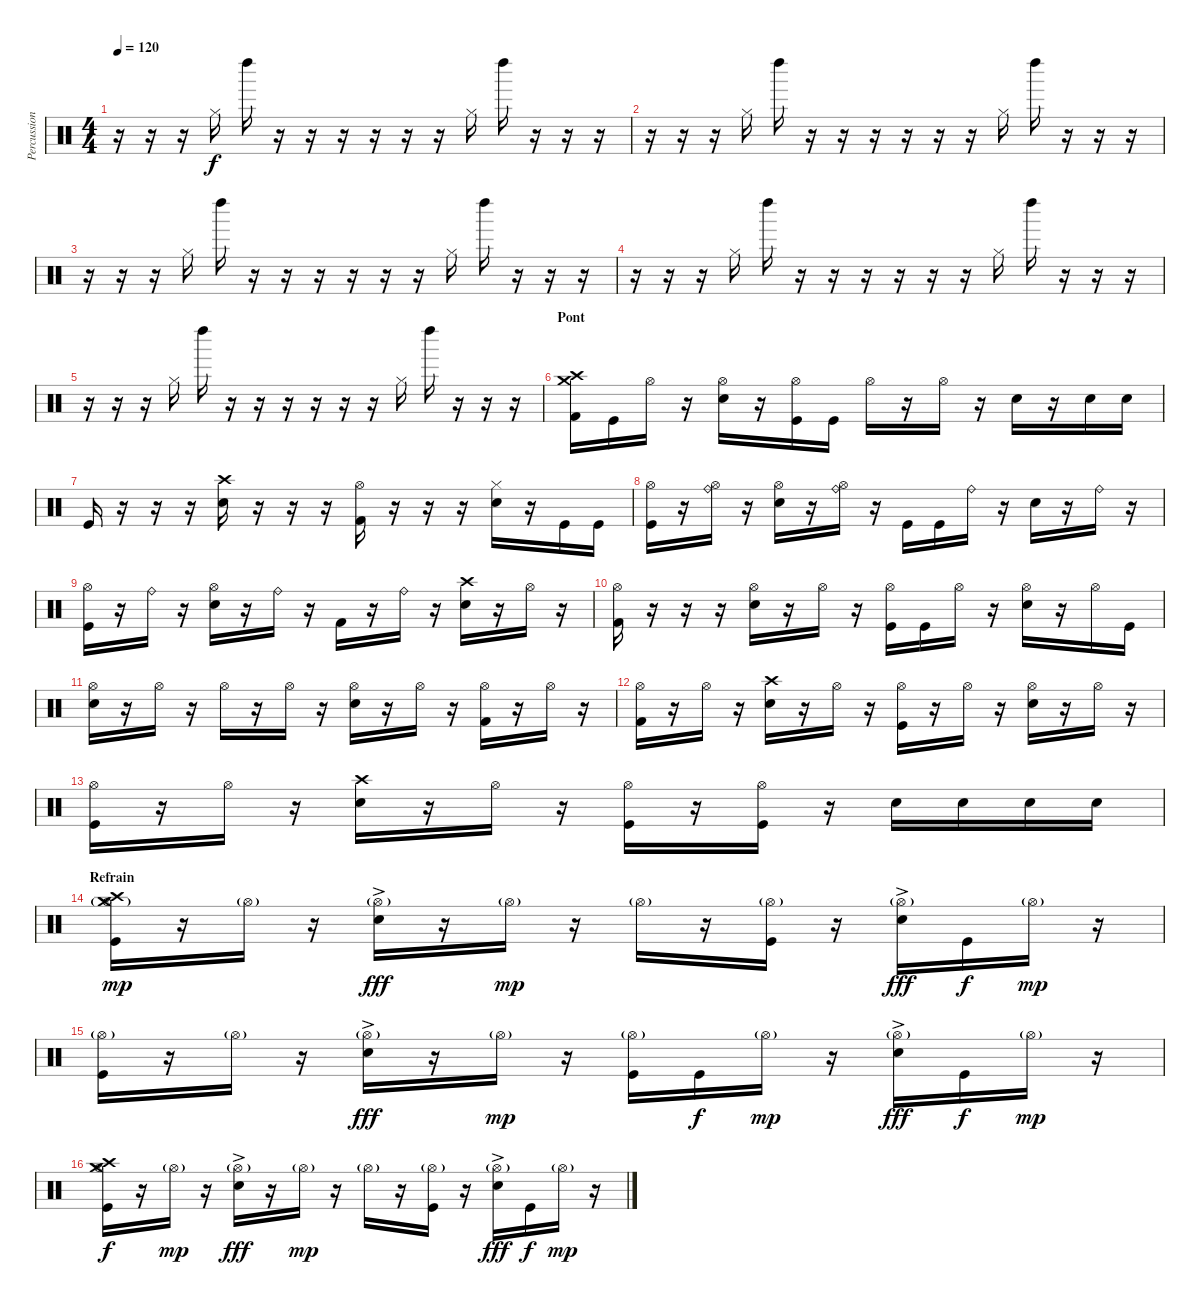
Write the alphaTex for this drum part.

\track ("Percussions" "Percussion") {instrument percussion}
\staff {score}
\articulation defaults
\ts (4 4)
\tempo 120
\clef neutral
\ks c
r.16{dy f} r.16 r.16 "Hi-Hat (closed)".16 "Left Maraca (hit)".16 r.16 r.16 r.16 r.16 r.16 r.16 "Hi-Hat (closed)".16 "Left Maraca (hit)".16 r.16 r.16 r.16 |
r.16 r.16 r.16 "Hi-Hat (closed)".16 "Left Maraca (hit)".16 r.16 r.16 r.16 r.16 r.16 r.16 "Hi-Hat (closed)".16 "Left Maraca (hit)".16 r.16 r.16 r.16 |
r.16 r.16 r.16 "Hi-Hat (closed)".16 "Left Maraca (hit)".16 r.16 r.16 r.16 r.16 r.16 r.16 "Hi-Hat (closed)".16 "Left Maraca (hit)".16 r.16 r.16 r.16 |
r.16 r.16 r.16 "Hi-Hat (closed)".16 "Left Maraca (hit)".16 r.16 r.16 r.16 r.16 r.16 r.16 "Hi-Hat (closed)".16 "Left Maraca (hit)".16 r.16 r.16 r.16 |
r.16 r.16 r.16 "Hi-Hat (closed)".16 "Left Maraca (hit)".16 r.16 r.16 r.16 r.16 r.16 r.16 "Hi-Hat (closed)".16 "Left Maraca (hit)".16 r.16 r.16 r.16 |
\section ("" "Pont")
("Kick (hit) 2" "Crash high (hit)" "Crash medium (hit)").16 "Kick (hit)".16 "Hi-Hat (open)".16 r.16 ("Hi-Hat (open)" "Electric Snare (hit)").16 r.16 ("Hi-Hat (open)" "Kick (hit)").16 "Kick (hit)".16 "Hi-Hat (open)".16 r.16 "Hi-Hat (open)".16 r.16 "Electric Snare (hit)".16 r.16 "Electric Snare (hit)".16 "Electric Snare (hit)".16 |
"Kick (hit)".16 r.16 r.16 r.16 ("Crash high (hit)" "Electric Snare (hit)").16 r.16 r.16 r.16 ("Kick (hit) 2" "Hi-Hat (open)").16 r.16 r.16 r.16 ("Electric Snare (hit)" "Hi-Hat (closed)").16 r.16 "Kick (hit)".16 "Kick (hit)".16 |
("Kick (hit)" "Hi-Hat (open)").16 r.16 ("Ride (bell)" "Hi-Hat (open)").16 r.16 ("Electric Snare (hit)" "Hi-Hat (open)").16 r.16 ("Ride (bell)" "Hi-Hat (open)").16 r.16 "Kick (hit)".16 "Kick (hit)".16 "Ride (bell)".16 r.16 "Electric Snare (hit)".16 r.16 "Ride (bell)".16 r.16 |
("Kick (hit)" "Hi-Hat (open)").16 r.16 "Ride (bell)".16 r.16 ("Electric Snare (hit)" "Hi-Hat (open)").16 r.16 "Ride (bell)".16 r.16 "Kick (hit) 2".16 r.16 "Ride (bell)".16 r.16 ("Crash high (hit)" "Electric Snare (hit)").16 r.16 "Hi-Hat (open)".16 r.16 |
("Hi-Hat (open)" "Kick (hit) 2").16 r.16 r.16 r.16 ("Hi-Hat (open)" "Electric Snare (hit)").16 r.16 "Hi-Hat (open)".16 r.16 ("Hi-Hat (open)" "Kick (hit)").16 "Kick (hit)".16 "Hi-Hat (open)".16 r.16 ("Hi-Hat (open)" "Electric Snare (hit)").16 r.16 "Hi-Hat (open)".16 "Kick (hit)".16 |
("Hi-Hat (open)" "Electric Snare (hit)").16 r.16 "Hi-Hat (open)".16 r.16 "Hi-Hat (open)".16 r.16 "Hi-Hat (open)".16 r.16 ("Hi-Hat (open)" "Electric Snare (hit)").16 r.16 "Hi-Hat (open)".16 r.16 ("Hi-Hat (open)" "Kick (hit) 2").16 r.16 "Hi-Hat (open)".16 r.16 |
("Hi-Hat (open)" "Kick (hit) 2").16 r.16 "Hi-Hat (open)".16 r.16 ("Crash high (hit)" "Electric Snare (hit)").16 r.16 "Hi-Hat (open)".16 r.16 ("Hi-Hat (open)" "Kick (hit)").16 r.16 "Hi-Hat (open)".16 r.16 ("Hi-Hat (open)" "Electric Snare (hit)").16 r.16 "Hi-Hat (open)".16 r.16 |
("Hi-Hat (open)" "Kick (hit)").16 r.16 "Hi-Hat (open)".16 r.16 ("Crash high (hit)" "Electric Snare (hit)").16 r.16 "Hi-Hat (open)".16 r.16 ("Hi-Hat (open)" "Kick (hit)").16 r.16 ("Hi-Hat (open)" "Kick (hit)").16 r.16 "Electric Snare (hit)".16 "Electric Snare (hit)".16 "Electric Snare (hit)".16 "Electric Snare (hit)".16 |
\section ("" "Refrain")
("Crash high (hit)" "Hi-Hat (open)"{g} "Crash medium (hit)" "Kick (hit)").16{dy mp} r.16 "Hi-Hat (open)"{g}.16 r.16 ("Hi-Hat (open)"{g} "Electric Snare (hit)"{ac}).16{dy fff} r.16 "Hi-Hat (open)"{g}.16{dy mp} r.16 "Hi-Hat (open)"{g}.16 r.16 ("Hi-Hat (open)"{g} "Kick (hit)").16 r.16 ("Hi-Hat (open)"{g} "Electric Snare (hit)"{ac}).16{dy fff} "Kick (hit)".16{dy f} "Hi-Hat (open)"{g}.16{dy mp} r.16 |
("Hi-Hat (open)"{g} "Kick (hit)").16 r.16 "Hi-Hat (open)"{g}.16 r.16 ("Hi-Hat (open)"{g} "Electric Snare (hit)"{ac}).16{dy fff} r.16 "Hi-Hat (open)"{g}.16{dy mp} r.16 ("Hi-Hat (open)"{g} "Kick (hit)").16 "Kick (hit)".16{dy f} "Hi-Hat (open)"{g}.16{dy mp} r.16 ("Hi-Hat (open)"{g} "Electric Snare (hit)"{ac}).16{dy fff} "Kick (hit)".16{dy f} "Hi-Hat (open)"{g}.16{dy mp} r.16 |
("Crash high (hit)" "Hi-Hat (open)" "Crash medium (hit)" "Kick (hit)").16{dy f} r.16 "Hi-Hat (open)"{g}.16{dy mp} r.16 ("Hi-Hat (open)"{g} "Electric Snare (hit)"{ac}).16{dy fff} r.16 "Hi-Hat (open)"{g}.16{dy mp} r.16 "Hi-Hat (open)"{g}.16 r.16 ("Hi-Hat (open)"{g} "Kick (hit)").16 r.16 ("Hi-Hat (open)"{g} "Electric Snare (hit)"{ac}).16{dy fff} "Kick (hit)".16{dy f} "Hi-Hat (open)"{g}.16{dy mp} r.16
